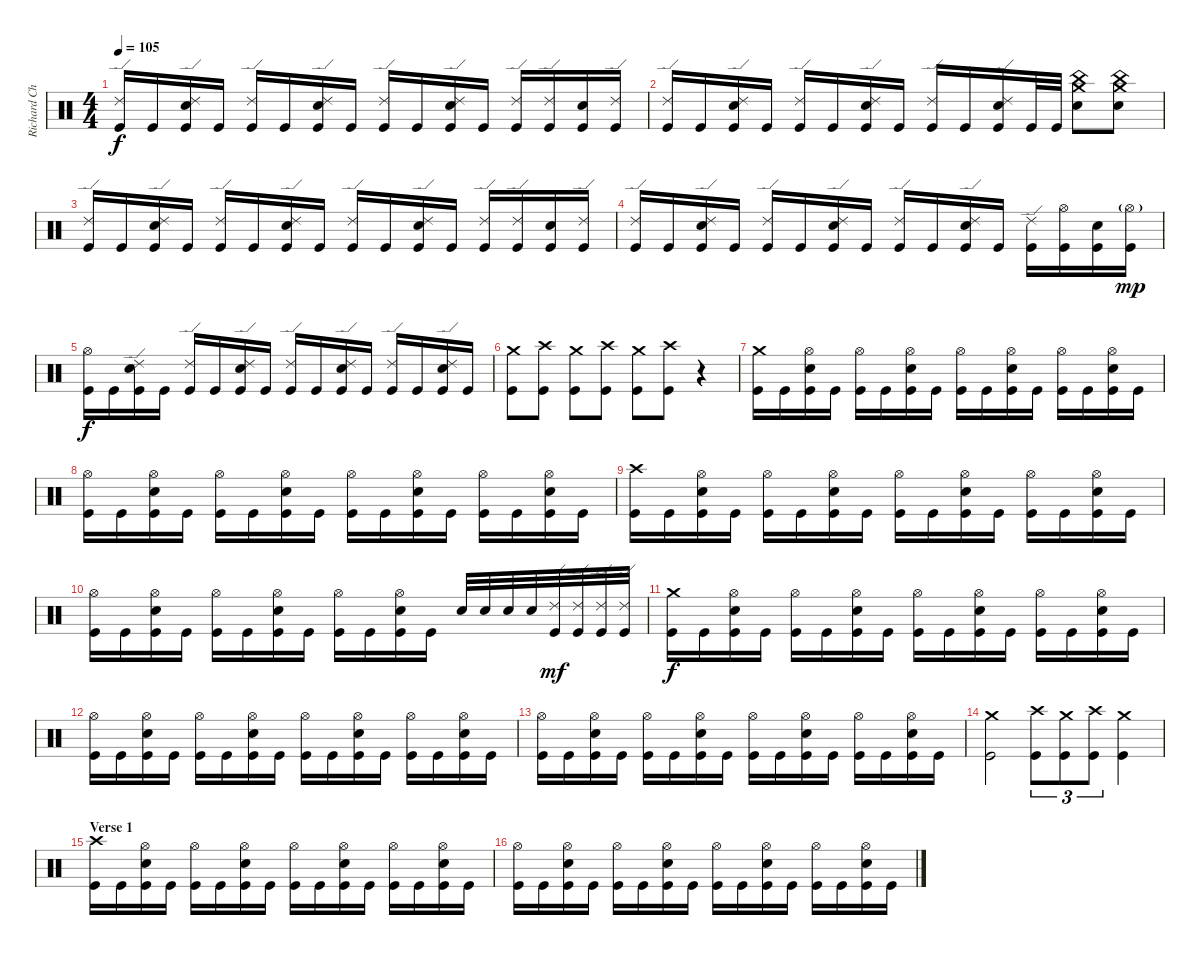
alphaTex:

\track ("Richard Christy" "Richard Ch") {instrument percussion}
\staff {score}
\articulation defaults
\ts (4 4)
\tempo 105
\clef neutral
\ks c
("Ride (edge) 2" "Kick (hit)").16{dy f} "Kick (hit)".16 ("Ride (edge) 2" "Electric Snare (hit)" "Kick (hit)").16 "Kick (hit)".16 ("Ride (edge) 2" "Kick (hit)").16 "Kick (hit)".16 ("Ride (edge) 2" "Electric Snare (hit)" "Kick (hit)").16 "Kick (hit)".16 ("Ride (edge) 2" "Kick (hit)").16 "Kick (hit)".16 ("Ride (edge) 2" "Electric Snare (hit)" "Kick (hit)").16 "Kick (hit)".16 ("Ride (edge) 2" "Kick (hit)").16 ("Ride (edge) 2" "Kick (hit)").16 ("Electric Snare (hit)" "Kick (hit)").16 ("Ride (edge) 2" "Kick (hit)").16 |
("Ride (edge) 2" "Kick (hit)").16 "Kick (hit)".16 ("Ride (edge) 2" "Electric Snare (hit)" "Kick (hit)").16 "Kick (hit)".16 ("Ride (edge) 2" "Kick (hit)").16 "Kick (hit)".16 ("Ride (edge) 2" "Electric Snare (hit)" "Kick (hit)").16 "Kick (hit)".16 ("Ride (edge) 2" "Kick (hit)").16 "Kick (hit)".16 ("Ride (edge) 2" "Electric Snare (hit)" "Kick (hit)").16 "Kick (hit)".32 "Kick (hit)".32 ("Crash medium (hit)" "China (hit)" "Electric Snare (hit)").8 ("Crash medium (hit)" "China (hit)" "Electric Snare (hit)").8 |
("Ride (edge) 2" "Kick (hit)").16 "Kick (hit)".16 ("Ride (edge) 2" "Electric Snare (hit)" "Kick (hit)").16 "Kick (hit)".16 ("Ride (edge) 2" "Kick (hit)").16 "Kick (hit)".16 ("Ride (edge) 2" "Electric Snare (hit)" "Kick (hit)").16 "Kick (hit)".16 ("Ride (edge) 2" "Kick (hit)").16 "Kick (hit)".16 ("Ride (edge) 2" "Electric Snare (hit)" "Kick (hit)").16 "Kick (hit)".16 ("Ride (edge) 2" "Kick (hit)").16 ("Ride (edge) 2" "Kick (hit)").16 ("Electric Snare (hit)" "Kick (hit)").16 ("Ride (edge) 2" "Kick (hit)").16 |
("Ride (edge) 2" "Kick (hit)").16 "Kick (hit)".16 ("Ride (edge) 2" "Electric Snare (hit)" "Kick (hit)").16 "Kick (hit)".16 ("Ride (edge) 2" "Kick (hit)").16 "Kick (hit)".16 ("Ride (edge) 2" "Electric Snare (hit)" "Kick (hit)").16 "Kick (hit)".16 ("Ride (edge) 2" "Kick (hit)").16 "Kick (hit)".16 ("Ride (edge) 2" "Electric Snare (hit)" "Kick (hit)").16 "Kick (hit)".16 ("Ride (edge) 2" "Kick (hit)").16 ("Hi-Hat (open)" "Kick (hit)").16 ("Electric Snare (hit)" "Kick (hit)").16 ("Hi-Hat (open)"{g} "Kick (hit)").16{dy mp} |
("Hi-Hat (open)" "Kick (hit)").16{dy f} "Kick (hit)".16 ("Ride (edge) 2" "Electric Snare (hit)" "Kick (hit)").16 "Kick (hit)".16 ("Ride (edge) 2" "Kick (hit)").16 "Kick (hit)".16 ("Ride (edge) 2" "Electric Snare (hit)" "Kick (hit)").16 "Kick (hit)".16 ("Ride (edge) 2" "Kick (hit)").16 "Kick (hit)".16 ("Ride (edge) 2" "Electric Snare (hit)" "Kick (hit)").16 "Kick (hit)".16 ("Ride (edge) 2" "Kick (hit)").16 "Kick (hit)".16 ("Ride (edge) 2" "Electric Snare (hit)" "Kick (hit)").16 "Kick (hit)".16 |
("Crash medium (hit)" "Kick (hit)").8 ("Crash high (hit)" "Kick (hit)").8 ("Crash medium (hit)" "Kick (hit)").8 ("Crash high (hit)" "Kick (hit)").8 ("Crash medium (hit)" "Kick (hit)").8 ("Crash high (hit)" "Kick (hit)").8 r.4 |
("Crash medium (hit)" "Kick (hit)").16 "Kick (hit)".16 ("Hi-Hat (open)" "Electric Snare (hit)" "Kick (hit)").16 "Kick (hit)".16 ("Hi-Hat (open)" "Kick (hit)").16 "Kick (hit)".16 ("Hi-Hat (open)" "Electric Snare (hit)" "Kick (hit)").16 "Kick (hit)".16 ("Hi-Hat (open)" "Kick (hit)").16 "Kick (hit)".16 ("Hi-Hat (open)" "Electric Snare (hit)" "Kick (hit)").16 "Kick (hit)".16 ("Hi-Hat (open)" "Kick (hit)").16 "Kick (hit)".16 ("Hi-Hat (open)" "Electric Snare (hit)" "Kick (hit)").16 "Kick (hit)".16 |
("Hi-Hat (open)" "Kick (hit)").16 "Kick (hit)".16 ("Hi-Hat (open)" "Electric Snare (hit)" "Kick (hit)").16 "Kick (hit)".16 ("Hi-Hat (open)" "Kick (hit)").16 "Kick (hit)".16 ("Hi-Hat (open)" "Electric Snare (hit)" "Kick (hit)").16 "Kick (hit)".16 ("Hi-Hat (open)" "Kick (hit)").16 "Kick (hit)".16 ("Hi-Hat (open)" "Electric Snare (hit)" "Kick (hit)").16 "Kick (hit)".16 ("Hi-Hat (open)" "Kick (hit)").16 "Kick (hit)".16 ("Hi-Hat (open)" "Electric Snare (hit)" "Kick (hit)").16 "Kick (hit)".16 |
("Crash high (hit)" "Kick (hit)").16 "Kick (hit)".16 ("Hi-Hat (open)" "Electric Snare (hit)" "Kick (hit)").16 "Kick (hit)".16 ("Hi-Hat (open)" "Kick (hit)").16 "Kick (hit)".16 ("Hi-Hat (open)" "Electric Snare (hit)" "Kick (hit)").16 "Kick (hit)".16 ("Hi-Hat (open)" "Kick (hit)").16 "Kick (hit)".16 ("Hi-Hat (open)" "Electric Snare (hit)" "Kick (hit)").16 "Kick (hit)".16 ("Hi-Hat (open)" "Kick (hit)").16 "Kick (hit)".16 ("Hi-Hat (open)" "Electric Snare (hit)" "Kick (hit)").16 "Kick (hit)".16 |
("Hi-Hat (open)" "Kick (hit)").16 "Kick (hit)".16 ("Hi-Hat (open)" "Electric Snare (hit)" "Kick (hit)").16 "Kick (hit)".16 ("Hi-Hat (open)" "Kick (hit)").16 "Kick (hit)".16 ("Hi-Hat (open)" "Electric Snare (hit)" "Kick (hit)").16 "Kick (hit)".16 ("Hi-Hat (open)" "Kick (hit)").16 "Kick (hit)".16 ("Hi-Hat (open)" "Electric Snare (hit)" "Kick (hit)").16 "Kick (hit)".16 "Electric Snare (hit)".32 "Electric Snare (hit)".32 "Electric Snare (hit)".32 "Electric Snare (hit)".32 ("Ride (edge) 2" "Kick (hit)").32{dy mf} ("Ride (edge) 2" "Kick (hit)").32 ("Ride (edge) 2" "Kick (hit)").32 ("Ride (edge) 2" "Kick (hit)").32 |
("Crash medium (hit)" "Kick (hit)").16{dy f} "Kick (hit)".16 ("Hi-Hat (open)" "Electric Snare (hit)" "Kick (hit)").16 "Kick (hit)".16 ("Hi-Hat (open)" "Kick (hit)").16 "Kick (hit)".16 ("Hi-Hat (open)" "Electric Snare (hit)" "Kick (hit)").16 "Kick (hit)".16 ("Hi-Hat (open)" "Kick (hit)").16 "Kick (hit)".16 ("Hi-Hat (open)" "Electric Snare (hit)" "Kick (hit)").16 "Kick (hit)".16 ("Hi-Hat (open)" "Kick (hit)").16 "Kick (hit)".16 ("Hi-Hat (open)" "Electric Snare (hit)" "Kick (hit)").16 "Kick (hit)".16 |
("Hi-Hat (open)" "Kick (hit)").16 "Kick (hit)".16 ("Hi-Hat (open)" "Electric Snare (hit)" "Kick (hit)").16 "Kick (hit)".16 ("Hi-Hat (open)" "Kick (hit)").16 "Kick (hit)".16 ("Hi-Hat (open)" "Electric Snare (hit)" "Kick (hit)").16 "Kick (hit)".16 ("Hi-Hat (open)" "Kick (hit)").16 "Kick (hit)".16 ("Hi-Hat (open)" "Electric Snare (hit)" "Kick (hit)").16 "Kick (hit)".16 ("Hi-Hat (open)" "Kick (hit)").16 "Kick (hit)".16 ("Hi-Hat (open)" "Electric Snare (hit)" "Kick (hit)").16 "Kick (hit)".16 |
("Hi-Hat (open)" "Kick (hit)").16 "Kick (hit)".16 ("Hi-Hat (open)" "Electric Snare (hit)" "Kick (hit)").16 "Kick (hit)".16 ("Hi-Hat (open)" "Kick (hit)").16 "Kick (hit)".16 ("Hi-Hat (open)" "Electric Snare (hit)" "Kick (hit)").16 "Kick (hit)".16 ("Hi-Hat (open)" "Kick (hit)").16 "Kick (hit)".16 ("Hi-Hat (open)" "Electric Snare (hit)" "Kick (hit)").16 "Kick (hit)".16 ("Hi-Hat (open)" "Kick (hit)").16 "Kick (hit)".16 ("Hi-Hat (open)" "Electric Snare (hit)" "Kick (hit)").16 "Kick (hit)".16 |
("Crash medium (hit)" "Kick (hit)").2 ("Crash high (hit)" "Kick (hit)").8{tu (3 2)} ("Crash medium (hit)" "Kick (hit)").8{tu (3 2)} ("Crash high (hit)" "Kick (hit)").8{tu (3 2)} ("Crash medium (hit)" "Kick (hit)").4 |
\section ("" "Verse 1")
("Crash high (hit)" "Kick (hit)").16 "Kick (hit)".16 ("Hi-Hat (open)" "Electric Snare (hit)" "Kick (hit)").16 "Kick (hit)".16 ("Hi-Hat (open)" "Kick (hit)").16 "Kick (hit)".16 ("Hi-Hat (open)" "Electric Snare (hit)" "Kick (hit)").16 "Kick (hit)".16 ("Hi-Hat (open)" "Kick (hit)").16 "Kick (hit)".16 ("Hi-Hat (open)" "Electric Snare (hit)" "Kick (hit)").16 "Kick (hit)".16 ("Hi-Hat (open)" "Kick (hit)").16 "Kick (hit)".16 ("Hi-Hat (open)" "Electric Snare (hit)" "Kick (hit)").16 "Kick (hit)".16 |
("Hi-Hat (open)" "Kick (hit)").16 "Kick (hit)".16 ("Hi-Hat (open)" "Electric Snare (hit)" "Kick (hit)").16 "Kick (hit)".16 ("Hi-Hat (open)" "Kick (hit)").16 "Kick (hit)".16 ("Hi-Hat (open)" "Electric Snare (hit)" "Kick (hit)").16 "Kick (hit)".16 ("Hi-Hat (open)" "Kick (hit)").16 "Kick (hit)".16 ("Hi-Hat (open)" "Electric Snare (hit)" "Kick (hit)").16 "Kick (hit)".16 ("Hi-Hat (open)" "Kick (hit)").16 "Kick (hit)".16 ("Hi-Hat (open)" "Electric Snare (hit)" "Kick (hit)").16 "Kick (hit)".16
